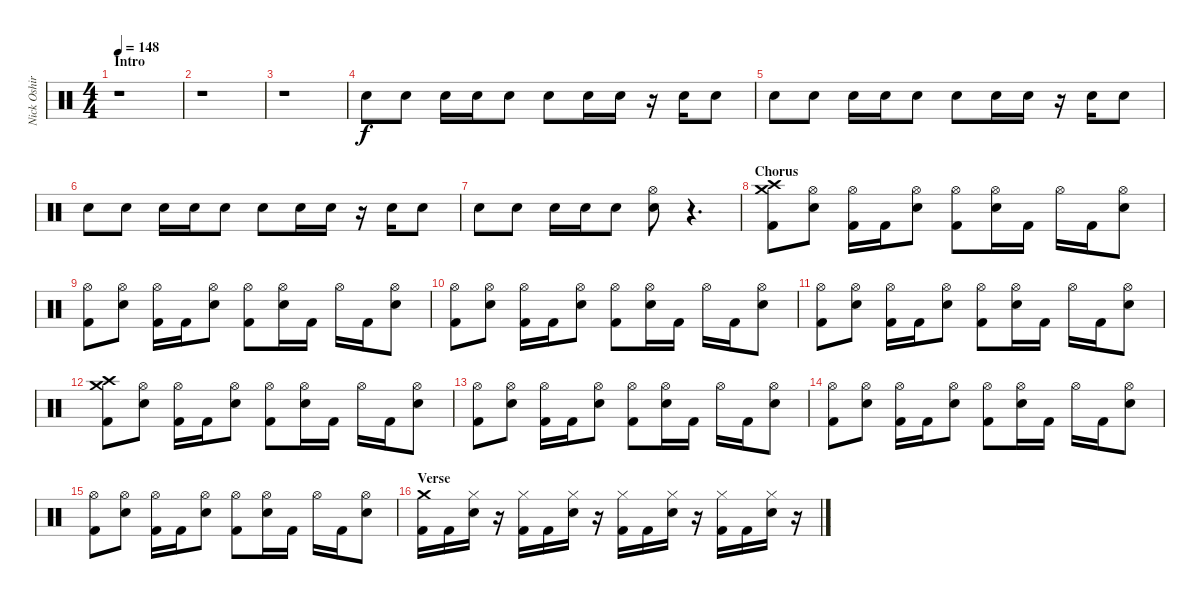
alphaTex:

\track ("Nick Oshiro - Drums" "Nick Oshir") {instrument percussion}
\staff {score}
\articulation defaults
\ts (4 4)
\section ("" "Intro")
\tempo 148
\clef neutral
\ks c
r.1{dy f} |
r.1 |
r.1 |
"Electric Snare (hit)".8{volume 5 balance 16} "Electric Snare (hit)".8 "Electric Snare (hit)".16 "Electric Snare (hit)".16 "Electric Snare (hit)".8 "Electric Snare (hit)".8 "Electric Snare (hit)".16 "Electric Snare (hit)".16 r.16 "Electric Snare (hit)".16 "Electric Snare (hit)".8 |
"Electric Snare (hit)".8 "Electric Snare (hit)".8 "Electric Snare (hit)".16 "Electric Snare (hit)".16 "Electric Snare (hit)".8 "Electric Snare (hit)".8 "Electric Snare (hit)".16 "Electric Snare (hit)".16 r.16 "Electric Snare (hit)".16 "Electric Snare (hit)".8 |
"Electric Snare (hit)".8 "Electric Snare (hit)".8 "Electric Snare (hit)".16 "Electric Snare (hit)".16 "Electric Snare (hit)".8 "Electric Snare (hit)".8 "Electric Snare (hit)".16 "Electric Snare (hit)".16 r.16 "Electric Snare (hit)".16 "Electric Snare (hit)".8 |
"Electric Snare (hit)".8 "Electric Snare (hit)".8 "Electric Snare (hit)".16 "Electric Snare (hit)".16 "Electric Snare (hit)".8 ("Hi-Hat (open)" "Electric Snare (hit)").8{volume 14 balance 8} r.4{d} |
\section ("" "Chorus")
("Crash high (hit)" "Crash medium (hit)" "Kick (hit) 2").8 ("Hi-Hat (open)" "Electric Snare (hit)").8 ("Hi-Hat (open)" "Kick (hit) 2").16 "Kick (hit) 2".16 ("Hi-Hat (open)" "Electric Snare (hit)").8 ("Hi-Hat (open)" "Kick (hit) 2").8 ("Hi-Hat (open)" "Electric Snare (hit)").16 "Kick (hit) 2".16 "Hi-Hat (open)".16 "Kick (hit) 2".16 ("Hi-Hat (open)" "Electric Snare (hit)").8 |
("Hi-Hat (open)" "Kick (hit) 2").8 ("Hi-Hat (open)" "Electric Snare (hit)").8 ("Hi-Hat (open)" "Kick (hit) 2").16 "Kick (hit) 2".16 ("Hi-Hat (open)" "Electric Snare (hit)").8 ("Hi-Hat (open)" "Kick (hit) 2").8 ("Hi-Hat (open)" "Electric Snare (hit)").16 "Kick (hit) 2".16 "Hi-Hat (open)".16 "Kick (hit) 2".16 ("Hi-Hat (open)" "Electric Snare (hit)").8 |
("Hi-Hat (open)" "Kick (hit) 2").8 ("Hi-Hat (open)" "Electric Snare (hit)").8 ("Hi-Hat (open)" "Kick (hit) 2").16 "Kick (hit) 2".16 ("Hi-Hat (open)" "Electric Snare (hit)").8 ("Hi-Hat (open)" "Kick (hit) 2").8 ("Hi-Hat (open)" "Electric Snare (hit)").16 "Kick (hit) 2".16 "Hi-Hat (open)".16 "Kick (hit) 2".16 ("Hi-Hat (open)" "Electric Snare (hit)").8 |
("Hi-Hat (open)" "Kick (hit) 2").8 ("Hi-Hat (open)" "Electric Snare (hit)").8 ("Hi-Hat (open)" "Kick (hit) 2").16 "Kick (hit) 2".16 ("Hi-Hat (open)" "Electric Snare (hit)").8 ("Hi-Hat (open)" "Kick (hit) 2").8 ("Hi-Hat (open)" "Electric Snare (hit)").16 "Kick (hit) 2".16 "Hi-Hat (open)".16 "Kick (hit) 2".16 ("Hi-Hat (open)" "Electric Snare (hit)").8 |
("Crash high (hit)" "Crash medium (hit)" "Kick (hit) 2").8 ("Hi-Hat (open)" "Electric Snare (hit)").8 ("Hi-Hat (open)" "Kick (hit) 2").16 "Kick (hit) 2".16 ("Hi-Hat (open)" "Electric Snare (hit)").8 ("Hi-Hat (open)" "Kick (hit) 2").8 ("Hi-Hat (open)" "Electric Snare (hit)").16 "Kick (hit) 2".16 "Hi-Hat (open)".16 "Kick (hit) 2".16 ("Hi-Hat (open)" "Electric Snare (hit)").8 |
("Hi-Hat (open)" "Kick (hit) 2").8 ("Hi-Hat (open)" "Electric Snare (hit)").8 ("Hi-Hat (open)" "Kick (hit) 2").16 "Kick (hit) 2".16 ("Hi-Hat (open)" "Electric Snare (hit)").8 ("Hi-Hat (open)" "Kick (hit) 2").8 ("Hi-Hat (open)" "Electric Snare (hit)").16 "Kick (hit) 2".16 "Hi-Hat (open)".16 "Kick (hit) 2".16 ("Hi-Hat (open)" "Electric Snare (hit)").8 |
("Hi-Hat (open)" "Kick (hit) 2").8 ("Hi-Hat (open)" "Electric Snare (hit)").8 ("Hi-Hat (open)" "Kick (hit) 2").16 "Kick (hit) 2".16 ("Hi-Hat (open)" "Electric Snare (hit)").8 ("Hi-Hat (open)" "Kick (hit) 2").8 ("Hi-Hat (open)" "Electric Snare (hit)").16 "Kick (hit) 2".16 "Hi-Hat (open)".16 "Kick (hit) 2".16 ("Hi-Hat (open)" "Electric Snare (hit)").8 |
("Hi-Hat (open)" "Kick (hit) 2").8 ("Hi-Hat (open)" "Electric Snare (hit)").8 ("Hi-Hat (open)" "Kick (hit) 2").16 "Kick (hit) 2".16 ("Hi-Hat (open)" "Electric Snare (hit)").8 ("Hi-Hat (open)" "Kick (hit) 2").8 ("Hi-Hat (open)" "Electric Snare (hit)").16 "Kick (hit) 2".16 "Hi-Hat (open)".16 "Kick (hit) 2".16 ("Hi-Hat (open)" "Electric Snare (hit)").8 |
\section ("" "Verse")
("Crash medium (hit)" "Kick (hit) 2").16 "Kick (hit) 2".16 ("Hi-Hat (closed)" "Electric Snare (hit)").16 r.16 ("Hi-Hat (closed)" "Kick (hit) 2").16 "Kick (hit) 2".16 ("Hi-Hat (closed)" "Electric Snare (hit)").16 r.16 ("Hi-Hat (closed)" "Kick (hit) 2").16 "Kick (hit) 2".16 ("Hi-Hat (closed)" "Electric Snare (hit)").16 r.16 ("Hi-Hat (closed)" "Kick (hit) 2").16 "Kick (hit) 2".16 ("Hi-Hat (closed)" "Electric Snare (hit)").16 r.16
